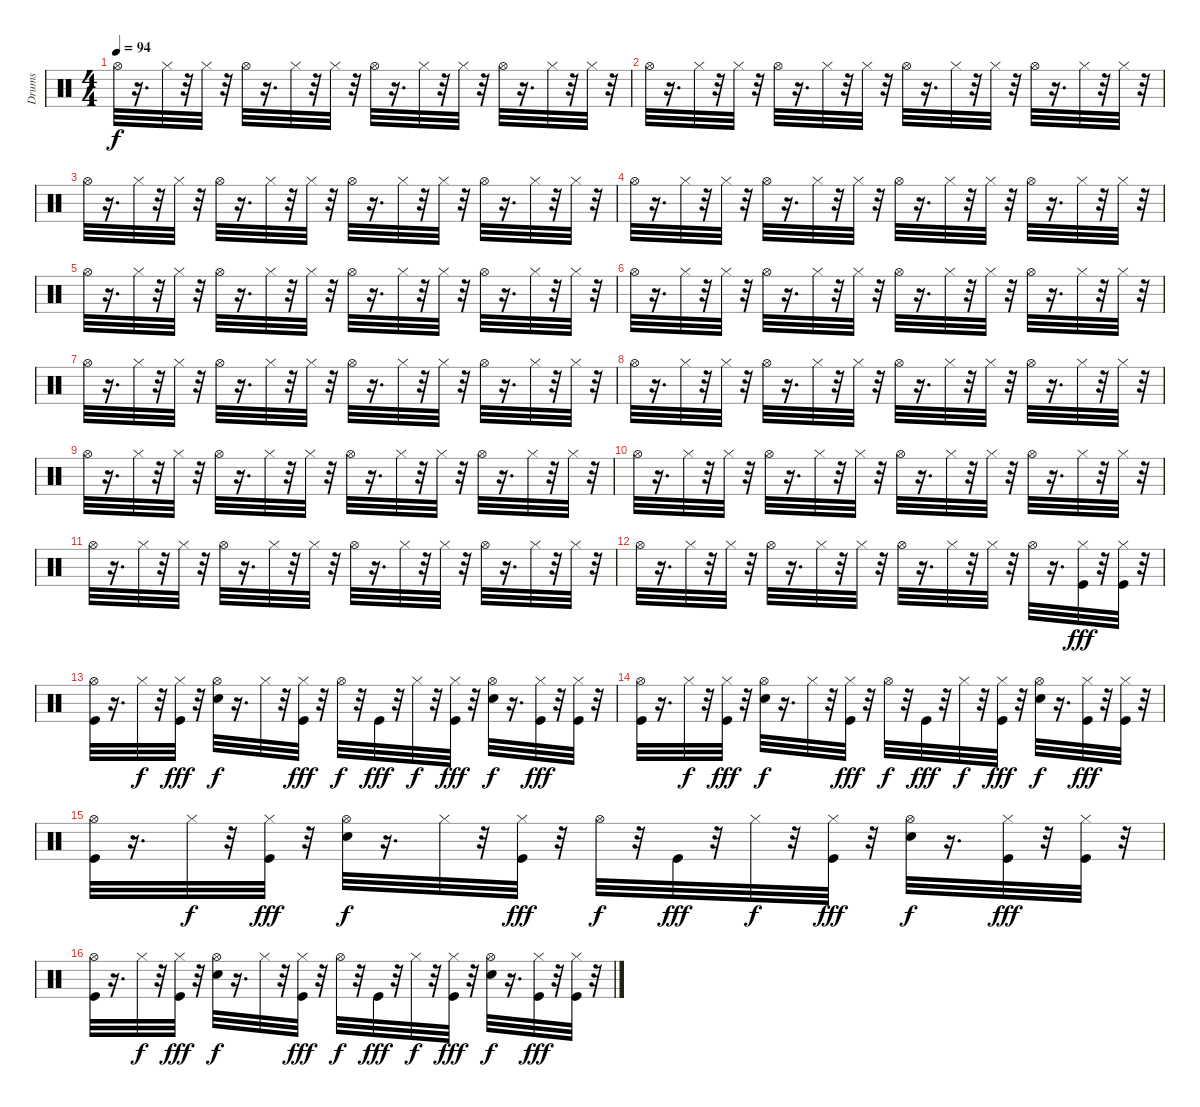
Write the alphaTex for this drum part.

\track ("Drums" "Drums") {instrument percussion}
\staff {score}
\articulation defaults
\ts (4 4)
\tempo 94
\clef neutral
\ks c "Hi-Hat (open)".32{dy f}
r.16{d} "Hi-Hat (closed)".32 r.32 "Hi-Hat (closed)".32 r.32 "Hi-Hat (open)".32 r.16{d} "Hi-Hat (closed)".32 r.32 "Hi-Hat (closed)".32 r.32 "Hi-Hat (open)".32 r.16{d} "Hi-Hat (closed)".32 r.32 "Hi-Hat (closed)".32 r.32 "Hi-Hat (open)".32 r.16{d} "Hi-Hat (closed)".32 r.32 "Hi-Hat (closed)".32 r.32 |
"Hi-Hat (open)".32 r.16{d} "Hi-Hat (closed)".32 r.32 "Hi-Hat (closed)".32 r.32 "Hi-Hat (open)".32 r.16{d} "Hi-Hat (closed)".32 r.32 "Hi-Hat (closed)".32 r.32 "Hi-Hat (open)".32 r.16{d} "Hi-Hat (closed)".32 r.32 "Hi-Hat (closed)".32 r.32 "Hi-Hat (open)".32 r.16{d} "Hi-Hat (closed)".32 r.32 "Hi-Hat (closed)".32 r.32 |
"Hi-Hat (open)".32 r.16{d} "Hi-Hat (closed)".32 r.32 "Hi-Hat (closed)".32 r.32 "Hi-Hat (open)".32 r.16{d} "Hi-Hat (closed)".32 r.32 "Hi-Hat (closed)".32 r.32 "Hi-Hat (open)".32 r.16{d} "Hi-Hat (closed)".32 r.32 "Hi-Hat (closed)".32 r.32 "Hi-Hat (open)".32 r.16{d} "Hi-Hat (closed)".32 r.32 "Hi-Hat (closed)".32 r.32 |
"Hi-Hat (open)".32 r.16{d} "Hi-Hat (closed)".32 r.32 "Hi-Hat (closed)".32 r.32 "Hi-Hat (open)".32 r.16{d} "Hi-Hat (closed)".32 r.32 "Hi-Hat (closed)".32 r.32 "Hi-Hat (open)".32 r.16{d} "Hi-Hat (closed)".32 r.32 "Hi-Hat (closed)".32 r.32 "Hi-Hat (open)".32 r.16{d} "Hi-Hat (closed)".32 r.32 "Hi-Hat (closed)".32 r.32 |
"Hi-Hat (open)".32 r.16{d} "Hi-Hat (closed)".32 r.32 "Hi-Hat (closed)".32 r.32 "Hi-Hat (open)".32 r.16{d} "Hi-Hat (closed)".32 r.32 "Hi-Hat (closed)".32 r.32 "Hi-Hat (open)".32 r.16{d} "Hi-Hat (closed)".32 r.32 "Hi-Hat (closed)".32 r.32 "Hi-Hat (open)".32 r.16{d} "Hi-Hat (closed)".32 r.32 "Hi-Hat (closed)".32 r.32 |
"Hi-Hat (open)".32 r.16{d} "Hi-Hat (closed)".32 r.32 "Hi-Hat (closed)".32 r.32 "Hi-Hat (open)".32 r.16{d} "Hi-Hat (closed)".32 r.32 "Hi-Hat (closed)".32 r.32 "Hi-Hat (open)".32 r.16{d} "Hi-Hat (closed)".32 r.32 "Hi-Hat (closed)".32 r.32 "Hi-Hat (open)".32 r.16{d} "Hi-Hat (closed)".32 r.32 "Hi-Hat (closed)".32 r.32 |
"Hi-Hat (open)".32 r.16{d} "Hi-Hat (closed)".32 r.32 "Hi-Hat (closed)".32 r.32 "Hi-Hat (open)".32 r.16{d} "Hi-Hat (closed)".32 r.32 "Hi-Hat (closed)".32 r.32 "Hi-Hat (open)".32 r.16{d} "Hi-Hat (closed)".32 r.32 "Hi-Hat (closed)".32 r.32 "Hi-Hat (open)".32 r.16{d} "Hi-Hat (closed)".32 r.32 "Hi-Hat (closed)".32 r.32 |
"Hi-Hat (open)".32 r.16{d} "Hi-Hat (closed)".32 r.32 "Hi-Hat (closed)".32 r.32 "Hi-Hat (open)".32 r.16{d} "Hi-Hat (closed)".32 r.32 "Hi-Hat (closed)".32 r.32 "Hi-Hat (open)".32 r.16{d} "Hi-Hat (closed)".32 r.32 "Hi-Hat (closed)".32 r.32 "Hi-Hat (open)".32 r.16{d} "Hi-Hat (closed)".32 r.32 "Hi-Hat (closed)".32 r.32 |
"Hi-Hat (open)".32 r.16{d} "Hi-Hat (closed)".32 r.32 "Hi-Hat (closed)".32 r.32 "Hi-Hat (open)".32 r.16{d} "Hi-Hat (closed)".32 r.32 "Hi-Hat (closed)".32 r.32 "Hi-Hat (open)".32 r.16{d} "Hi-Hat (closed)".32 r.32 "Hi-Hat (closed)".32 r.32 "Hi-Hat (open)".32 r.16{d} "Hi-Hat (closed)".32 r.32 "Hi-Hat (closed)".32 r.32 |
"Hi-Hat (open)".32 r.16{d} "Hi-Hat (closed)".32 r.32 "Hi-Hat (closed)".32 r.32 "Hi-Hat (open)".32 r.16{d} "Hi-Hat (closed)".32 r.32 "Hi-Hat (closed)".32 r.32 "Hi-Hat (open)".32 r.16{d} "Hi-Hat (closed)".32 r.32 "Hi-Hat (closed)".32 r.32 "Hi-Hat (open)".32 r.16{d} "Hi-Hat (closed)".32 r.32 "Hi-Hat (closed)".32 r.32 |
"Hi-Hat (open)".32 r.16{d} "Hi-Hat (closed)".32 r.32 "Hi-Hat (closed)".32 r.32 "Hi-Hat (open)".32 r.16{d} "Hi-Hat (closed)".32 r.32 "Hi-Hat (closed)".32 r.32 "Hi-Hat (open)".32 r.16{d} "Hi-Hat (closed)".32 r.32 "Hi-Hat (closed)".32 r.32 "Hi-Hat (open)".32 r.16{d} "Hi-Hat (closed)".32 r.32 "Hi-Hat (closed)".32 r.32 |
"Hi-Hat (open)".32 r.16{d} "Hi-Hat (closed)".32 r.32 "Hi-Hat (closed)".32 r.32 "Hi-Hat (open)".32 r.16{d} "Hi-Hat (closed)".32 r.32 "Hi-Hat (closed)".32 r.32 "Hi-Hat (open)".32 r.16{d} "Hi-Hat (closed)".32 r.32 "Hi-Hat (closed)".32 r.32 "Hi-Hat (open)".32 r.16{d} ("Kick (hit)" "Hi-Hat (closed)").32{dy fff} r.32 ("Kick (hit)" "Hi-Hat (closed)").32 r.32 |
("Kick (hit)" "Hi-Hat (open)").32 r.16{d} "Hi-Hat (closed)".32{dy f} r.32 ("Kick (hit)" "Hi-Hat (closed)").32{dy fff} r.32 ("Snare (hit) 2" "Hi-Hat (open)").32{dy f} r.16{d} "Hi-Hat (closed)".32 r.32 ("Kick (hit)" "Hi-Hat (closed)").32{dy fff} r.32 "Hi-Hat (open)".32{dy f} r.32 "Kick (hit)".32{dy fff} r.32 "Hi-Hat (closed)".32{dy f} r.32 ("Kick (hit)" "Hi-Hat (closed)").32{dy fff} r.32 ("Snare (hit) 2" "Hi-Hat (open)").32{dy f} r.16{d} ("Kick (hit)" "Hi-Hat (closed)").32{dy fff} r.32 ("Kick (hit)" "Hi-Hat (closed)").32 r.32 |
("Kick (hit)" "Hi-Hat (open)").32 r.16{d} "Hi-Hat (closed)".32{dy f} r.32 ("Kick (hit)" "Hi-Hat (closed)").32{dy fff} r.32 ("Snare (hit) 2" "Hi-Hat (open)").32{dy f} r.16{d} "Hi-Hat (closed)".32 r.32 ("Kick (hit)" "Hi-Hat (closed)").32{dy fff} r.32 "Hi-Hat (open)".32{dy f} r.32 "Kick (hit)".32{dy fff} r.32 "Hi-Hat (closed)".32{dy f} r.32 ("Kick (hit)" "Hi-Hat (closed)").32{dy fff} r.32 ("Snare (hit) 2" "Hi-Hat (open)").32{dy f} r.16{d} ("Kick (hit)" "Hi-Hat (closed)").32{dy fff} r.32 ("Kick (hit)" "Hi-Hat (closed)").32 r.32 |
("Kick (hit)" "Hi-Hat (open)").32 r.16{d} "Hi-Hat (closed)".32{dy f} r.32 ("Kick (hit)" "Hi-Hat (closed)").32{dy fff} r.32 ("Snare (hit) 2" "Hi-Hat (open)").32{dy f} r.16{d} "Hi-Hat (closed)".32 r.32 ("Kick (hit)" "Hi-Hat (closed)").32{dy fff} r.32 "Hi-Hat (open)".32{dy f} r.32 "Kick (hit)".32{dy fff} r.32 "Hi-Hat (closed)".32{dy f} r.32 ("Kick (hit)" "Hi-Hat (closed)").32{dy fff} r.32 ("Snare (hit) 2" "Hi-Hat (open)").32{dy f} r.16{d} ("Kick (hit)" "Hi-Hat (closed)").32{dy fff} r.32 ("Kick (hit)" "Hi-Hat (closed)").32 r.32 |
("Kick (hit)" "Hi-Hat (open)").32 r.16{d} "Hi-Hat (closed)".32{dy f} r.32 ("Kick (hit)" "Hi-Hat (closed)").32{dy fff} r.32 ("Snare (hit) 2" "Hi-Hat (open)").32{dy f} r.16{d} "Hi-Hat (closed)".32 r.32 ("Kick (hit)" "Hi-Hat (closed)").32{dy fff} r.32 "Hi-Hat (open)".32{dy f} r.32 "Kick (hit)".32{dy fff} r.32 "Hi-Hat (closed)".32{dy f} r.32 ("Kick (hit)" "Hi-Hat (closed)").32{dy fff} r.32 ("Snare (hit) 2" "Hi-Hat (open)").32{dy f} r.16{d} ("Kick (hit)" "Hi-Hat (closed)").32{dy fff} r.32 ("Kick (hit)" "Hi-Hat (closed)").32 r.32
